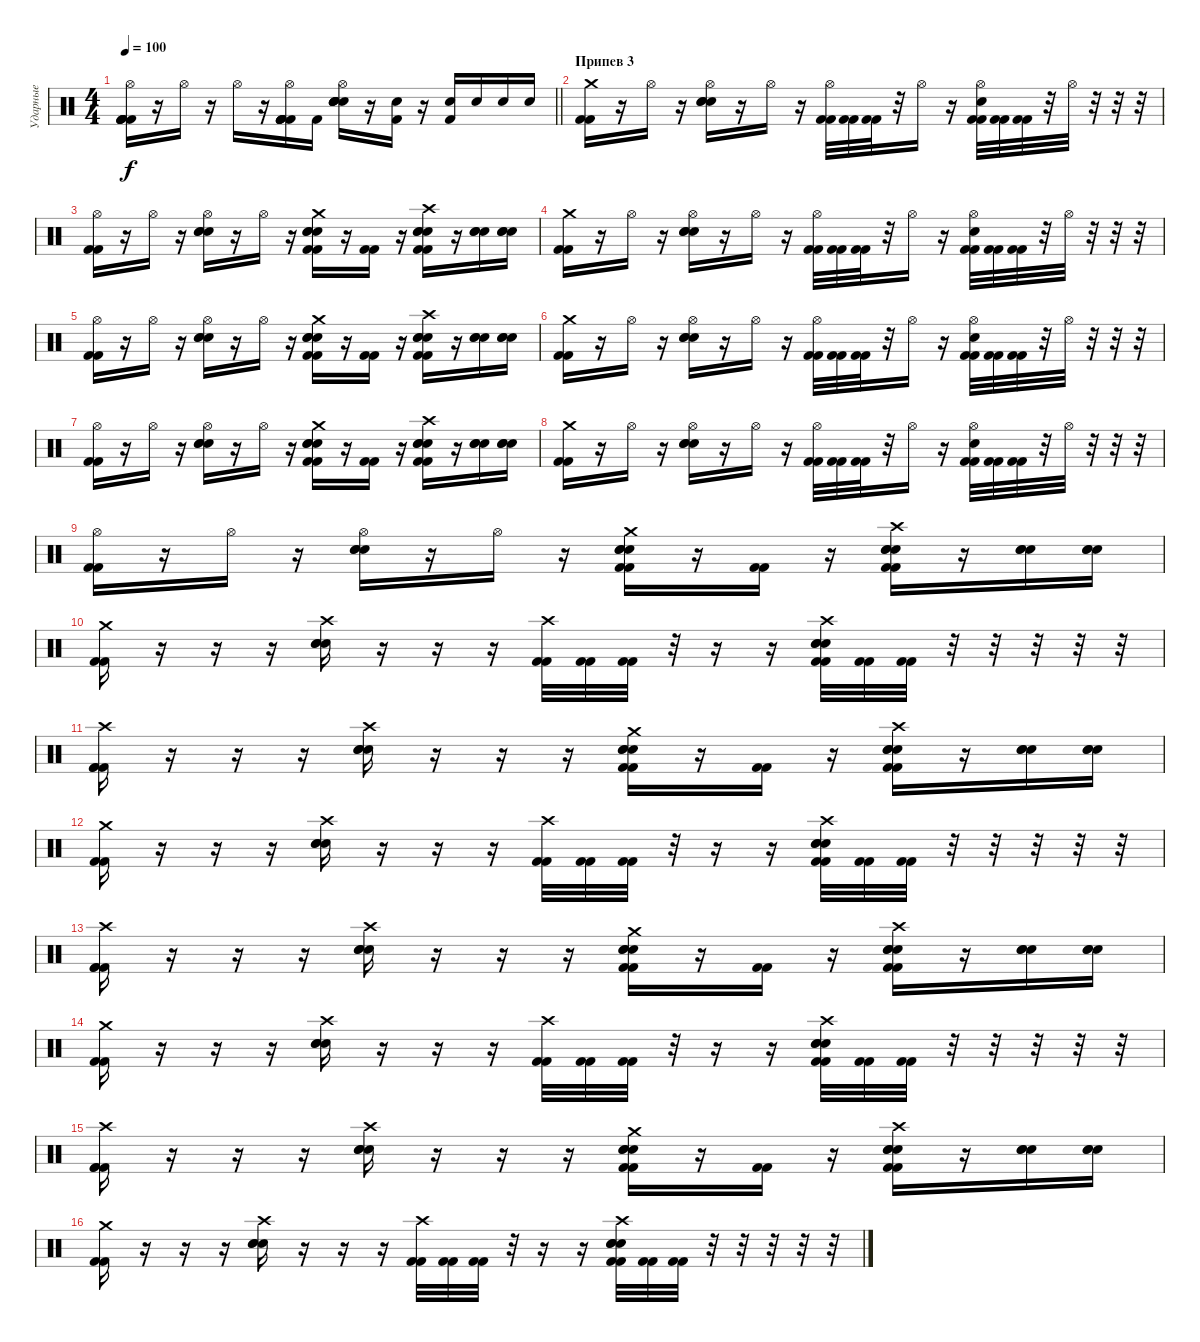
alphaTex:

\track ("Ударные" "Ударные") {instrument percussion}
\staff {score}
\articulation defaults
\ts (4 4)
\tempo 100
\clef neutral
\barLineRight lightlight
\ks c
("Kick (hit) 2" "Kick (hit) 2" "Hi-Hat (open)" "Kick (hit) 2" "Kick (hit) 2" "Kick (hit) 2").16{dy f} r.16 "Hi-Hat (open)".16 r.16 "Hi-Hat (open)".16 r.16 ("Kick (hit) 2" "Kick (hit) 2" "Hi-Hat (open)" "Kick (hit) 2" "Kick (hit) 2" "Kick (hit) 2").16 "Kick (hit) 2".16 ("Electric Snare (hit)" "Electric Snare (hit)" "Hi-Hat (open)" "Electric Snare (hit)" "Electric Snare (hit)" "Electric Snare (hit)").16 r.16 ("Electric Snare (hit)" "Kick (hit) 2").16 r.16 ("Electric Snare (hit)" "Kick (hit) 2").16 "Electric Snare (hit)".16 "Electric Snare (hit)".16 "Electric Snare (hit)".16 |
\section ("" "Припев 3")
("Crash medium (hit)" "Kick (hit) 2" "Kick (hit) 2").16 r.16 "Hi-Hat (open)".16 r.16 ("Hi-Hat (open)" "Electric Snare (hit)" "Electric Snare (hit)" "Electric Snare (hit)").16 r.16 "Hi-Hat (open)".16 r.16 ("Hi-Hat (open)" "Kick (hit) 2" "Kick (hit) 2").32 ("Kick (hit) 2" "Kick (hit) 2").32 ("Kick (hit) 2" "Kick (hit) 2").32 r.32 "Hi-Hat (open)".16 r.16 ("Hi-Hat (open)" "Electric Snare (hit)" "Kick (hit) 2" "Kick (hit) 2").32 ("Kick (hit) 2" "Kick (hit) 2").32 ("Kick (hit) 2" "Kick (hit) 2").32 r.32 "Hi-Hat (open)".32 r.32 r.32 r.32 |
("Hi-Hat (open)" "Kick (hit) 2" "Kick (hit) 2").16 r.16 "Hi-Hat (open)".16 r.16 ("Hi-Hat (open)" "Electric Snare (hit)" "Electric Snare (hit)" "Electric Snare (hit)").16 r.16 "Hi-Hat (open)".16 r.16 ("Crash medium (hit)" "Electric Snare (hit)" "Electric Snare (hit)" "Electric Snare (hit)" "Kick (hit) 2" "Kick (hit) 2").16 r.16 ("Kick (hit) 2" "Kick (hit) 2").16 r.16 ("Crash high (hit)" "Electric Snare (hit)" "Electric Snare (hit)" "Electric Snare (hit)" "Kick (hit) 2" "Kick (hit) 2").16 r.16 ("Electric Snare (hit)" "Electric Snare (hit)" "Electric Snare (hit)").16 ("Electric Snare (hit)" "Electric Snare (hit)" "Electric Snare (hit)").16 |
("Crash medium (hit)" "Kick (hit) 2" "Kick (hit) 2").16 r.16 "Hi-Hat (open)".16 r.16 ("Hi-Hat (open)" "Electric Snare (hit)" "Electric Snare (hit)" "Electric Snare (hit)").16 r.16 "Hi-Hat (open)".16 r.16 ("Hi-Hat (open)" "Kick (hit) 2" "Kick (hit) 2").32 ("Kick (hit) 2" "Kick (hit) 2").32 ("Kick (hit) 2" "Kick (hit) 2").32 r.32 "Hi-Hat (open)".16 r.16 ("Hi-Hat (open)" "Electric Snare (hit)" "Kick (hit) 2" "Kick (hit) 2").32 ("Kick (hit) 2" "Kick (hit) 2").32 ("Kick (hit) 2" "Kick (hit) 2").32 r.32 "Hi-Hat (open)".32 r.32 r.32 r.32 |
("Hi-Hat (open)" "Kick (hit) 2" "Kick (hit) 2").16 r.16 "Hi-Hat (open)".16 r.16 ("Hi-Hat (open)" "Electric Snare (hit)" "Electric Snare (hit)" "Electric Snare (hit)").16 r.16 "Hi-Hat (open)".16 r.16 ("Crash medium (hit)" "Electric Snare (hit)" "Electric Snare (hit)" "Electric Snare (hit)" "Kick (hit) 2" "Kick (hit) 2").16 r.16 ("Kick (hit) 2" "Kick (hit) 2").16 r.16 ("Crash high (hit)" "Electric Snare (hit)" "Electric Snare (hit)" "Electric Snare (hit)" "Kick (hit) 2" "Kick (hit) 2").16 r.16 ("Electric Snare (hit)" "Electric Snare (hit)" "Electric Snare (hit)").16 ("Electric Snare (hit)" "Electric Snare (hit)" "Electric Snare (hit)").16 |
("Crash medium (hit)" "Kick (hit) 2" "Kick (hit) 2").16 r.16 "Hi-Hat (open)".16 r.16 ("Hi-Hat (open)" "Electric Snare (hit)" "Electric Snare (hit)" "Electric Snare (hit)").16 r.16 "Hi-Hat (open)".16 r.16 ("Hi-Hat (open)" "Kick (hit) 2" "Kick (hit) 2").32 ("Kick (hit) 2" "Kick (hit) 2").32 ("Kick (hit) 2" "Kick (hit) 2").32 r.32 "Hi-Hat (open)".16 r.16 ("Hi-Hat (open)" "Electric Snare (hit)" "Kick (hit) 2" "Kick (hit) 2").32 ("Kick (hit) 2" "Kick (hit) 2").32 ("Kick (hit) 2" "Kick (hit) 2").32 r.32 "Hi-Hat (open)".32 r.32 r.32 r.32 |
("Hi-Hat (open)" "Kick (hit) 2" "Kick (hit) 2").16 r.16 "Hi-Hat (open)".16 r.16 ("Hi-Hat (open)" "Electric Snare (hit)" "Electric Snare (hit)" "Electric Snare (hit)").16 r.16 "Hi-Hat (open)".16 r.16 ("Crash medium (hit)" "Electric Snare (hit)" "Electric Snare (hit)" "Electric Snare (hit)" "Kick (hit) 2" "Kick (hit) 2").16 r.16 ("Kick (hit) 2" "Kick (hit) 2").16 r.16 ("Crash high (hit)" "Electric Snare (hit)" "Electric Snare (hit)" "Electric Snare (hit)" "Kick (hit) 2" "Kick (hit) 2").16 r.16 ("Electric Snare (hit)" "Electric Snare (hit)" "Electric Snare (hit)").16 ("Electric Snare (hit)" "Electric Snare (hit)" "Electric Snare (hit)").16 |
("Crash medium (hit)" "Kick (hit) 2" "Kick (hit) 2").16 r.16 "Hi-Hat (open)".16 r.16 ("Hi-Hat (open)" "Electric Snare (hit)" "Electric Snare (hit)" "Electric Snare (hit)").16 r.16 "Hi-Hat (open)".16 r.16 ("Hi-Hat (open)" "Kick (hit) 2" "Kick (hit) 2").32 ("Kick (hit) 2" "Kick (hit) 2").32 ("Kick (hit) 2" "Kick (hit) 2").32 r.32 "Hi-Hat (open)".16 r.16 ("Hi-Hat (open)" "Electric Snare (hit)" "Kick (hit) 2" "Kick (hit) 2").32 ("Kick (hit) 2" "Kick (hit) 2").32 ("Kick (hit) 2" "Kick (hit) 2").32 r.32 "Hi-Hat (open)".32 r.32 r.32 r.32 |
("Hi-Hat (open)" "Kick (hit) 2" "Kick (hit) 2").16 r.16 "Hi-Hat (open)".16 r.16 ("Hi-Hat (open)" "Electric Snare (hit)" "Electric Snare (hit)" "Electric Snare (hit)").16 r.16 "Hi-Hat (open)".16 r.16 ("Crash medium (hit)" "Electric Snare (hit)" "Electric Snare (hit)" "Electric Snare (hit)" "Kick (hit) 2" "Kick (hit) 2").16 r.16 ("Kick (hit) 2" "Kick (hit) 2").16 r.16 ("Crash high (hit)" "Electric Snare (hit)" "Electric Snare (hit)" "Electric Snare (hit)" "Kick (hit) 2" "Kick (hit) 2").16 r.16 ("Electric Snare (hit)" "Electric Snare (hit)" "Electric Snare (hit)").16 ("Electric Snare (hit)" "Electric Snare (hit)" "Electric Snare (hit)").16 |
("Crash medium (hit)" "Kick (hit) 2" "Kick (hit) 2").16 r.16 r.16 r.16 ("Electric Snare (hit)" "Crash high (hit)" "Electric Snare (hit)" "Electric Snare (hit)").16 r.16 r.16 r.16 ("Crash high (hit)" "Kick (hit) 2" "Kick (hit) 2").32 ("Kick (hit) 2" "Kick (hit) 2").32 ("Kick (hit) 2" "Kick (hit) 2").32 r.32 r.16 r.16 ("Electric Snare (hit)" "Crash high (hit)" "Electric Snare (hit)" "Electric Snare (hit)" "Kick (hit) 2" "Kick (hit) 2").32 ("Kick (hit) 2" "Kick (hit) 2").32 ("Kick (hit) 2" "Kick (hit) 2").32 r.32 r.32 r.32 r.32 r.32 |
("Crash high (hit)" "Kick (hit) 2" "Kick (hit) 2" "Kick (hit) 2").16 r.16 r.16 r.16 ("Crash high (hit)" "Electric Snare (hit)" "Electric Snare (hit)" "Electric Snare (hit)").16 r.16 r.16 r.16 ("Crash medium (hit)" "Electric Snare (hit)" "Electric Snare (hit)" "Electric Snare (hit)" "Kick (hit) 2" "Kick (hit) 2").16 r.16 ("Kick (hit) 2" "Kick (hit) 2").16 r.16 ("Crash high (hit)" "Electric Snare (hit)" "Electric Snare (hit)" "Electric Snare (hit)" "Kick (hit) 2" "Kick (hit) 2").16 r.16 ("Electric Snare (hit)" "Electric Snare (hit)" "Electric Snare (hit)").16 ("Electric Snare (hit)" "Electric Snare (hit)" "Electric Snare (hit)").16 |
("Crash medium (hit)" "Kick (hit) 2" "Kick (hit) 2").16 r.16 r.16 r.16 ("Electric Snare (hit)" "Crash high (hit)" "Electric Snare (hit)" "Electric Snare (hit)").16 r.16 r.16 r.16 ("Crash high (hit)" "Kick (hit) 2" "Kick (hit) 2").32 ("Kick (hit) 2" "Kick (hit) 2").32 ("Kick (hit) 2" "Kick (hit) 2").32 r.32 r.16 r.16 ("Electric Snare (hit)" "Crash high (hit)" "Electric Snare (hit)" "Electric Snare (hit)" "Kick (hit) 2" "Kick (hit) 2").32 ("Kick (hit) 2" "Kick (hit) 2").32 ("Kick (hit) 2" "Kick (hit) 2").32 r.32 r.32 r.32 r.32 r.32 |
("Crash high (hit)" "Kick (hit) 2" "Kick (hit) 2" "Kick (hit) 2").16 r.16 r.16 r.16 ("Crash high (hit)" "Electric Snare (hit)" "Electric Snare (hit)" "Electric Snare (hit)").16 r.16 r.16 r.16 ("Crash medium (hit)" "Electric Snare (hit)" "Electric Snare (hit)" "Electric Snare (hit)" "Kick (hit) 2" "Kick (hit) 2").16 r.16 ("Kick (hit) 2" "Kick (hit) 2").16 r.16 ("Crash high (hit)" "Electric Snare (hit)" "Electric Snare (hit)" "Electric Snare (hit)" "Kick (hit) 2" "Kick (hit) 2").16 r.16 ("Electric Snare (hit)" "Electric Snare (hit)" "Electric Snare (hit)").16 ("Electric Snare (hit)" "Electric Snare (hit)" "Electric Snare (hit)").16 |
("Crash medium (hit)" "Kick (hit) 2" "Kick (hit) 2").16 r.16 r.16 r.16 ("Electric Snare (hit)" "Crash high (hit)" "Electric Snare (hit)" "Electric Snare (hit)").16 r.16 r.16 r.16 ("Crash high (hit)" "Kick (hit) 2" "Kick (hit) 2").32 ("Kick (hit) 2" "Kick (hit) 2").32 ("Kick (hit) 2" "Kick (hit) 2").32 r.32 r.16 r.16 ("Electric Snare (hit)" "Crash high (hit)" "Electric Snare (hit)" "Electric Snare (hit)" "Kick (hit) 2" "Kick (hit) 2").32 ("Kick (hit) 2" "Kick (hit) 2").32 ("Kick (hit) 2" "Kick (hit) 2").32 r.32 r.32 r.32 r.32 r.32 |
("Crash high (hit)" "Kick (hit) 2" "Kick (hit) 2" "Kick (hit) 2").16 r.16 r.16 r.16 ("Crash high (hit)" "Electric Snare (hit)" "Electric Snare (hit)" "Electric Snare (hit)").16 r.16 r.16 r.16 ("Crash medium (hit)" "Electric Snare (hit)" "Electric Snare (hit)" "Electric Snare (hit)" "Kick (hit) 2" "Kick (hit) 2").16 r.16 ("Kick (hit) 2" "Kick (hit) 2").16 r.16 ("Crash high (hit)" "Electric Snare (hit)" "Electric Snare (hit)" "Electric Snare (hit)" "Kick (hit) 2" "Kick (hit) 2").16 r.16 ("Electric Snare (hit)" "Electric Snare (hit)" "Electric Snare (hit)").16 ("Electric Snare (hit)" "Electric Snare (hit)" "Electric Snare (hit)").16 |
("Crash medium (hit)" "Kick (hit) 2" "Kick (hit) 2").16 r.16 r.16 r.16 ("Electric Snare (hit)" "Crash high (hit)" "Electric Snare (hit)" "Electric Snare (hit)").16 r.16 r.16 r.16 ("Crash high (hit)" "Kick (hit) 2" "Kick (hit) 2").32 ("Kick (hit) 2" "Kick (hit) 2").32 ("Kick (hit) 2" "Kick (hit) 2").32 r.32 r.16 r.16 ("Electric Snare (hit)" "Crash high (hit)" "Electric Snare (hit)" "Electric Snare (hit)" "Kick (hit) 2" "Kick (hit) 2").32 ("Kick (hit) 2" "Kick (hit) 2").32 ("Kick (hit) 2" "Kick (hit) 2").32 r.32 r.32 r.32 r.32 r.32
